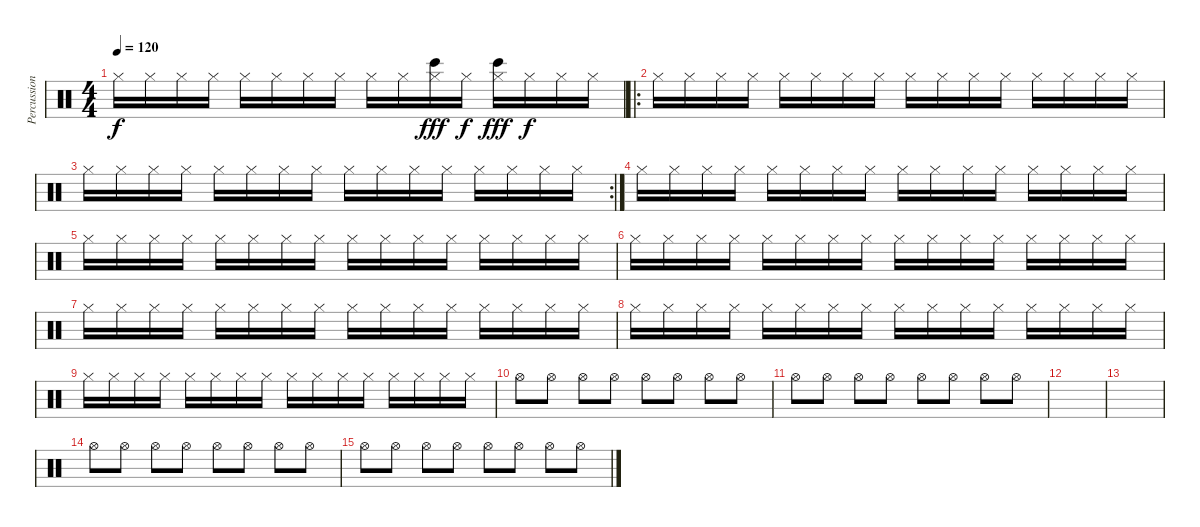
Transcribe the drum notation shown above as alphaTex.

\track ("Percussion" "Percussion") {instrument percussion}
\staff {score}
\articulation defaults
\ts (4 4)
\tempo 120
\clef neutral
\ks c "Hi-Hat (closed)".16{dy f} "Hi-Hat (closed)".16 "Hi-Hat (closed)".16 "Hi-Hat (closed)".16 "Hi-Hat (closed)".16 "Hi-Hat (closed)".16 "Hi-Hat (closed)".16 "Hi-Hat (closed)".16 "Hi-Hat (closed)".16 "Hi-Hat (closed)".16
("Hi-Hat (closed)" "Bongo High (hit)").16{dy fff} "Hi-Hat (closed)".16{dy f} ("Hi-Hat (closed)" "Bongo High (hit)").16{dy fff} "Hi-Hat (closed)".16{dy f} "Hi-Hat (closed)".16 "Hi-Hat (closed)".16 |
\ro "Hi-Hat (closed)".16 "Hi-Hat (closed)".16 "Hi-Hat (closed)".16 "Hi-Hat (closed)".16 "Hi-Hat (closed)".16 "Hi-Hat (closed)".16 "Hi-Hat (closed)".16 "Hi-Hat (closed)".16 "Hi-Hat (closed)".16 "Hi-Hat (closed)".16 "Hi-Hat (closed)".16 "Hi-Hat (closed)".16 "Hi-Hat (closed)".16 "Hi-Hat (closed)".16 "Hi-Hat (closed)".16 "Hi-Hat (closed)".16
|
\rc 2 "Hi-Hat (closed)".16 "Hi-Hat (closed)".16 "Hi-Hat (closed)".16 "Hi-Hat (closed)".16 "Hi-Hat (closed)".16 "Hi-Hat (closed)".16 "Hi-Hat (closed)".16 "Hi-Hat (closed)".16 "Hi-Hat (closed)".16 "Hi-Hat (closed)".16 "Hi-Hat (closed)".16 "Hi-Hat (closed)".16 "Hi-Hat (closed)".16 "Hi-Hat (closed)".16 "Hi-Hat (closed)".16 "Hi-Hat (closed)".16
|
"Hi-Hat (closed)".16 "Hi-Hat (closed)".16 "Hi-Hat (closed)".16 "Hi-Hat (closed)".16 "Hi-Hat (closed)".16 "Hi-Hat (closed)".16 "Hi-Hat (closed)".16 "Hi-Hat (closed)".16 "Hi-Hat (closed)".16 "Hi-Hat (closed)".16 "Hi-Hat (closed)".16 "Hi-Hat (closed)".16 "Hi-Hat (closed)".16 "Hi-Hat (closed)".16 "Hi-Hat (closed)".16 "Hi-Hat (closed)".16 |
"Hi-Hat (closed)".16 "Hi-Hat (closed)".16 "Hi-Hat (closed)".16 "Hi-Hat (closed)".16 "Hi-Hat (closed)".16 "Hi-Hat (closed)".16 "Hi-Hat (closed)".16 "Hi-Hat (closed)".16 "Hi-Hat (closed)".16 "Hi-Hat (closed)".16 "Hi-Hat (closed)".16 "Hi-Hat (closed)".16 "Hi-Hat (closed)".16 "Hi-Hat (closed)".16 "Hi-Hat (closed)".16 "Hi-Hat (closed)".16 |
"Hi-Hat (closed)".16 "Hi-Hat (closed)".16 "Hi-Hat (closed)".16 "Hi-Hat (closed)".16 "Hi-Hat (closed)".16 "Hi-Hat (closed)".16 "Hi-Hat (closed)".16 "Hi-Hat (closed)".16 "Hi-Hat (closed)".16 "Hi-Hat (closed)".16 "Hi-Hat (closed)".16 "Hi-Hat (closed)".16 "Hi-Hat (closed)".16 "Hi-Hat (closed)".16 "Hi-Hat (closed)".16 "Hi-Hat (closed)".16 |
"Hi-Hat (closed)".16 "Hi-Hat (closed)".16 "Hi-Hat (closed)".16 "Hi-Hat (closed)".16 "Hi-Hat (closed)".16 "Hi-Hat (closed)".16 "Hi-Hat (closed)".16 "Hi-Hat (closed)".16 "Hi-Hat (closed)".16 "Hi-Hat (closed)".16 "Hi-Hat (closed)".16 "Hi-Hat (closed)".16 "Hi-Hat (closed)".16 "Hi-Hat (closed)".16 "Hi-Hat (closed)".16 "Hi-Hat (closed)".16 |
"Hi-Hat (closed)".16 "Hi-Hat (closed)".16 "Hi-Hat (closed)".16 "Hi-Hat (closed)".16 "Hi-Hat (closed)".16 "Hi-Hat (closed)".16 "Hi-Hat (closed)".16 "Hi-Hat (closed)".16 "Hi-Hat (closed)".16 "Hi-Hat (closed)".16 "Hi-Hat (closed)".16 "Hi-Hat (closed)".16 "Hi-Hat (closed)".16 "Hi-Hat (closed)".16 "Hi-Hat (closed)".16 "Hi-Hat (closed)".16 |
"Hi-Hat (closed)".16 "Hi-Hat (closed)".16 "Hi-Hat (closed)".16 "Hi-Hat (closed)".16 "Hi-Hat (closed)".16 "Hi-Hat (closed)".16 "Hi-Hat (closed)".16 "Hi-Hat (closed)".16 "Hi-Hat (closed)".16 "Hi-Hat (closed)".16 "Hi-Hat (closed)".16 "Hi-Hat (closed)".16 "Hi-Hat (closed)".16 "Hi-Hat (closed)".16 "Hi-Hat (closed)".16 "Hi-Hat (closed)".16 |
"Hi-Hat (open)".8 "Hi-Hat (open)".8 "Hi-Hat (open)".8 "Hi-Hat (open)".8 "Hi-Hat (open)".8 "Hi-Hat (open)".8 "Hi-Hat (open)".8 "Hi-Hat (open)".8 |
"Hi-Hat (open)".8 "Hi-Hat (open)".8 "Hi-Hat (open)".8 "Hi-Hat (open)".8 "Hi-Hat (open)".8 "Hi-Hat (open)".8 "Hi-Hat (open)".8 "Hi-Hat (open)".8 |
|
|
"Hi-Hat (open)".8 "Hi-Hat (open)".8 "Hi-Hat (open)".8 "Hi-Hat (open)".8 "Hi-Hat (open)".8 "Hi-Hat (open)".8 "Hi-Hat (open)".8 "Hi-Hat (open)".8 |
"Hi-Hat (open)".8 "Hi-Hat (open)".8 "Hi-Hat (open)".8 "Hi-Hat (open)".8 "Hi-Hat (open)".8 "Hi-Hat (open)".8 "Hi-Hat (open)".8 "Hi-Hat (open)".8
